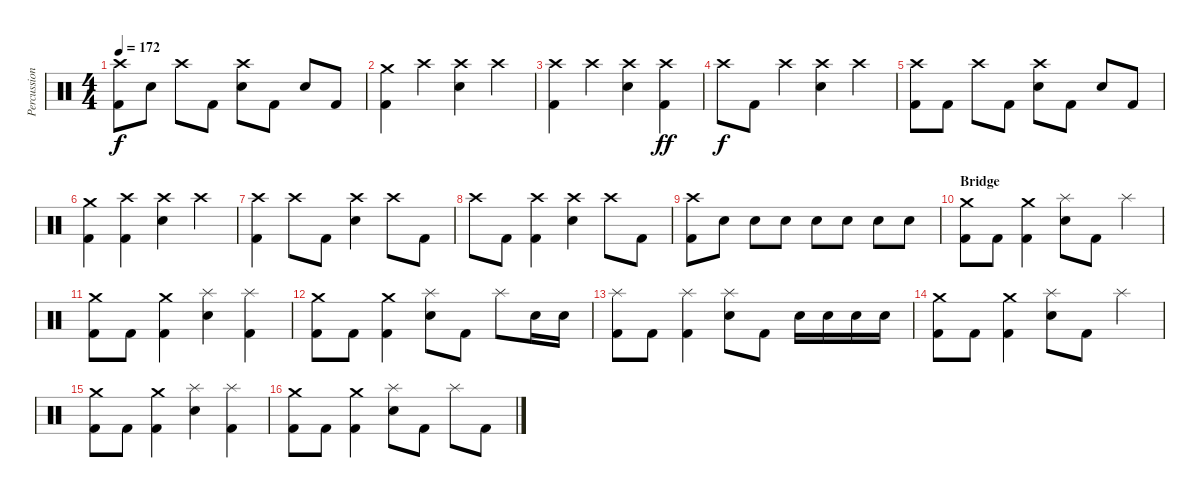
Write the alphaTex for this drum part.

\track ("Percussion" "Percussion") {instrument percussion}
\staff {score}
\articulation defaults
\ts (4 4)
\tempo 172
\clef neutral
\ks c
("Crash high (hit)" "Kick (hit) 2").8{dy f} "Electric Snare (hit)".8 "Crash high (hit)".8 "Kick (hit) 2".8 ("Crash high (hit)" "Electric Snare (hit)").8 "Kick (hit) 2".8 "Electric Snare (hit)".8 "Kick (hit) 2".8 |
("Crash medium (hit)" "Kick (hit) 2").4 "Crash high (hit)".4 ("Crash high (hit)" "Electric Snare (hit)").4 "Crash high (hit)".4 |
("Crash high (hit)" "Kick (hit) 2").4 "Crash high (hit)".4 ("Crash high (hit)" "Electric Snare (hit)").4 ("Crash high (hit)" "Kick (hit) 2").4{dy ff} |
"Crash high (hit)".8{dy f} "Kick (hit) 2".8 "Crash high (hit)".4 ("Crash high (hit)" "Electric Snare (hit)").4 "Crash high (hit)".4 |
("Crash high (hit)" "Kick (hit) 2").8 "Kick (hit) 2".8 "Crash high (hit)".8 "Kick (hit) 2".8 ("Crash high (hit)" "Electric Snare (hit)").8 "Kick (hit) 2".8 "Electric Snare (hit)".8 "Kick (hit) 2".8 |
("Crash medium (hit)" "Kick (hit) 2").4 ("Crash high (hit)" "Kick (hit) 2").4 ("Crash high (hit)" "Electric Snare (hit)").4 "Crash high (hit)".4 |
("Crash high (hit)" "Kick (hit) 2").4 "Crash high (hit)".8 "Kick (hit) 2".8 ("Crash high (hit)" "Electric Snare (hit)").4 "Crash high (hit)".8 "Kick (hit) 2".8 |
"Crash high (hit)".8 "Kick (hit) 2".8 ("Crash high (hit)" "Kick (hit) 2").4 ("Crash high (hit)" "Electric Snare (hit)").4 "Crash high (hit)".8 "Kick (hit) 2".8 |
("Crash high (hit)" "Kick (hit) 2").8 "Electric Snare (hit)".8 "Electric Snare (hit)".8 "Electric Snare (hit)".8 "Electric Snare (hit)".8 "Electric Snare (hit)".8 "Electric Snare (hit)".8 "Electric Snare (hit)".8 |
\section ("" "Bridge")
("Crash medium (hit)" "Kick (hit) 2").8 "Kick (hit) 2".8 ("Crash medium (hit)" "Kick (hit) 2").4 ("Splash (hit)" "Electric Snare (hit)").8 "Kick (hit) 2".8 "Splash (hit)".4 |
("Crash medium (hit)" "Kick (hit) 2").8 "Kick (hit) 2".8 ("Crash medium (hit)" "Kick (hit) 2").4 ("Splash (hit)" "Electric Snare (hit)").4 ("Splash (hit)" "Kick (hit) 2").4 |
("Crash medium (hit)" "Kick (hit) 2").8 "Kick (hit) 2".8 ("Crash medium (hit)" "Kick (hit) 2").4 ("Splash (hit)" "Electric Snare (hit)").8 "Kick (hit) 2".8 "Splash (hit)".8 "Electric Snare (hit)".16 "Electric Snare (hit)".16 |
("Splash (hit)" "Kick (hit) 2").8 "Kick (hit) 2".8 ("Splash (hit)" "Kick (hit) 2").4 ("Splash (hit)" "Electric Snare (hit)").8 "Kick (hit) 2".8 "Electric Snare (hit)".16 "Electric Snare (hit)".16 "Electric Snare (hit)".16 "Electric Snare (hit)".16 |
("Crash medium (hit)" "Kick (hit) 2").8 "Kick (hit) 2".8 ("Crash medium (hit)" "Kick (hit) 2").4 ("Splash (hit)" "Electric Snare (hit)").8 "Kick (hit) 2".8 "Splash (hit)".4 |
("Crash medium (hit)" "Kick (hit) 2").8 "Kick (hit) 2".8 ("Crash medium (hit)" "Kick (hit) 2").4 ("Splash (hit)" "Electric Snare (hit)").4 ("Splash (hit)" "Kick (hit) 2").4 |
("Crash medium (hit)" "Kick (hit) 2").8 "Kick (hit) 2".8 ("Crash medium (hit)" "Kick (hit) 2").4 ("Splash (hit)" "Electric Snare (hit)").8 "Kick (hit) 2".8 "Splash (hit)".8 "Kick (hit) 2".8
